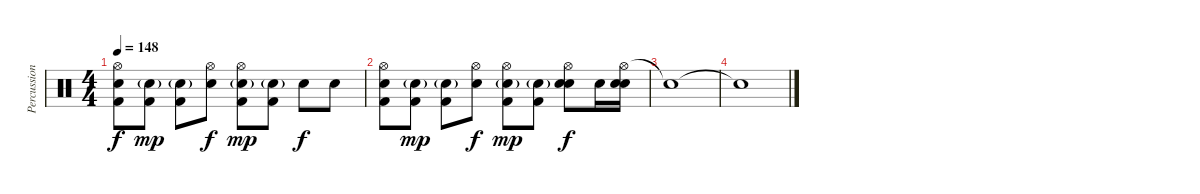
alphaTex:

\track ("Percussion" "Percussion") {instrument percussion}
\staff {score}
\articulation defaults
\ts (4 4)
\tempo 148
\clef neutral
\ks c
("Hi-Hat (open)" "Snare (hit) 2" "Kick (hit) 2").8{dy f} ("Snare (hit) 2"{g} "Kick (hit) 2").8{dy mp} ("Snare (hit) 2"{g} "Kick (hit) 2").8 ("Hi-Hat (open)" "Snare (hit) 2").8{dy f} ("Hi-Hat (open)" "Snare (hit) 2"{g} "Kick (hit) 2").8{dy mp} ("Snare (hit) 2"{g} "Kick (hit) 2").8 "Snare (hit) 2".8{dy f} "Snare (hit) 2".8 |
("Hi-Hat (open)" "Snare (hit) 2" "Kick (hit) 2").8 ("Snare (hit) 2"{g} "Kick (hit) 2").8{dy mp} ("Snare (hit) 2"{g} "Kick (hit) 2").8 ("Hi-Hat (open)" "Snare (hit) 2").8{dy f} ("Hi-Hat (open)" "Snare (hit) 2"{g} "Kick (hit) 2").8{dy mp} ("Snare (hit) 2"{g} "Kick (hit) 2").8 ("Hi-Hat (open)" "Electric Snare (hit)" "Snare (hit) 2").8{dy f} "Snare (hit) 2".16 ("Hi-Hat (open)" "Electric Snare (hit)" "Snare (hit) 2").16 |
"Snare (hit)"{t}.1 |
"Snare (hit)"{t}.1
